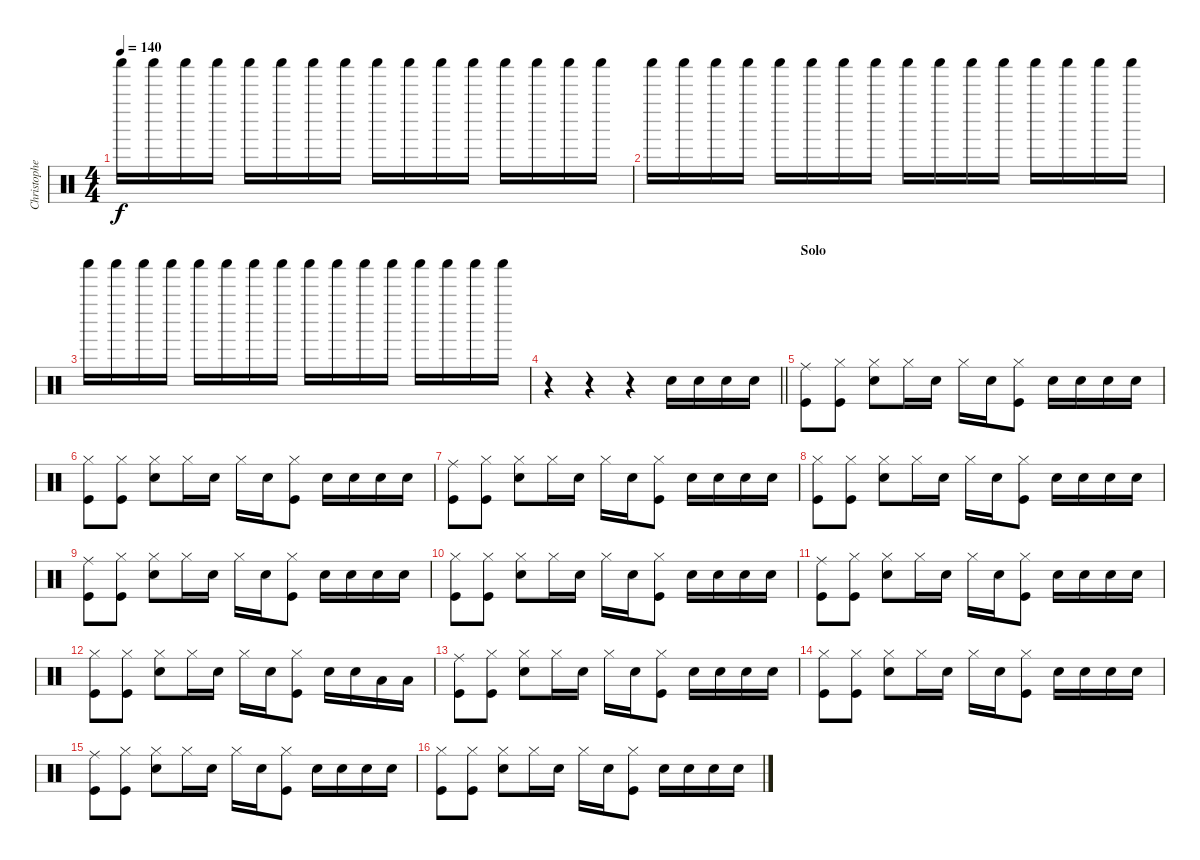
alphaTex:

\track ("Christopher - Drums" "Christophe") {instrument percussion}
\staff {score}
\articulation defaults
\ts (4 4)
\tempo 140
\clef neutral
\ks c "Shaker (hit)".16{dy f} "Shaker (hit)".16 "Shaker (hit)".16 "Shaker (hit)".16 "Shaker (hit)".16 "Shaker (hit)".16 "Shaker (hit)".16 "Shaker (hit)".16 "Shaker (hit)".16 "Shaker (hit)".16 "Shaker (hit)".16 "Shaker (hit)".16 "Shaker (hit)".16 "Shaker (hit)".16 "Shaker (hit)".16 "Shaker (hit)".16
|
"Shaker (hit)".16 "Shaker (hit)".16 "Shaker (hit)".16 "Shaker (hit)".16 "Shaker (hit)".16 "Shaker (hit)".16 "Shaker (hit)".16 "Shaker (hit)".16 "Shaker (hit)".16 "Shaker (hit)".16 "Shaker (hit)".16 "Shaker (hit)".16 "Shaker (hit)".16 "Shaker (hit)".16 "Shaker (hit)".16 "Shaker (hit)".16 |
"Shaker (hit)".16 "Shaker (hit)".16 "Shaker (hit)".16 "Shaker (hit)".16 "Shaker (hit)".16 "Shaker (hit)".16 "Shaker (hit)".16 "Shaker (hit)".16 "Shaker (hit)".16 "Shaker (hit)".16 "Shaker (hit)".16 "Shaker (hit)".16 "Shaker (hit)".16 "Shaker (hit)".16 "Shaker (hit)".16 "Shaker (hit)".16 |
\barLineRight lightlight
r.4 r.4 r.4 "Snare (hit) 2".16 "Snare (hit) 2".16 "Snare (hit) 2".16 "Snare (hit) 2".16 |
\section ("" "Solo")
("Ride (middle)" "Kick (hit)").8 ("Hi-Hat (closed)" "Kick (hit)").8 ("Hi-Hat (closed)" "Snare (hit) 2").8 "Hi-Hat (closed)".16 "Snare (hit) 2".16 "Hi-Hat (closed)".16 "Snare (hit) 2".16 ("Hi-Hat (closed)" "Kick (hit)").8 "Snare (hit) 2".16 "Snare (hit) 2".16 "Snare (hit) 2".16 "Snare (hit) 2".16 |
("Hi-Hat (closed)" "Kick (hit)").8 ("Hi-Hat (closed)" "Kick (hit)").8 ("Hi-Hat (closed)" "Snare (hit) 2").8 "Hi-Hat (closed)".16 "Snare (hit) 2".16 "Hi-Hat (closed)".16 "Snare (hit) 2".16 ("Hi-Hat (closed)" "Kick (hit)").8 "Snare (hit) 2".16 "Snare (hit) 2".16 "Snare (hit) 2".16 "Snare (hit) 2".16 |
("Ride (middle)" "Kick (hit)").8 ("Hi-Hat (closed)" "Kick (hit)").8 ("Hi-Hat (closed)" "Snare (hit) 2").8 "Hi-Hat (closed)".16 "Snare (hit) 2".16 "Hi-Hat (closed)".16 "Snare (hit) 2".16 ("Hi-Hat (closed)" "Kick (hit)").8 "Snare (hit) 2".16 "Snare (hit) 2".16 "Snare (hit) 2".16 "Snare (hit) 2".16 |
("Hi-Hat (closed)" "Kick (hit)").8 ("Hi-Hat (closed)" "Kick (hit)").8 ("Hi-Hat (closed)" "Snare (hit) 2").8 "Hi-Hat (closed)".16 "Snare (hit) 2".16 "Hi-Hat (closed)".16 "Snare (hit) 2".16 ("Hi-Hat (closed)" "Kick (hit)").8 "Snare (hit) 2".16 "Snare (hit) 2".16 "Snare (hit) 2".16 "Snare (hit) 2".16 |
("Ride (middle)" "Kick (hit)").8 ("Hi-Hat (closed)" "Kick (hit)").8 ("Hi-Hat (closed)" "Snare (hit) 2").8 "Hi-Hat (closed)".16 "Snare (hit) 2".16 "Hi-Hat (closed)".16 "Snare (hit) 2".16 ("Hi-Hat (closed)" "Kick (hit)").8 "Snare (hit) 2".16 "Snare (hit) 2".16 "Snare (hit) 2".16 "Snare (hit) 2".16 |
("Hi-Hat (closed)" "Kick (hit)").8 ("Hi-Hat (closed)" "Kick (hit)").8 ("Hi-Hat (closed)" "Snare (hit) 2").8 "Hi-Hat (closed)".16 "Snare (hit) 2".16 "Hi-Hat (closed)".16 "Snare (hit) 2".16 ("Hi-Hat (closed)" "Kick (hit)").8 "Snare (hit) 2".16 "Snare (hit) 2".16 "Snare (hit) 2".16 "Snare (hit) 2".16 |
("Ride (middle)" "Kick (hit)").8 ("Hi-Hat (closed)" "Kick (hit)").8 ("Hi-Hat (closed)" "Snare (hit) 2").8 "Hi-Hat (closed)".16 "Snare (hit) 2".16 "Hi-Hat (closed)".16 "Snare (hit) 2".16 ("Hi-Hat (closed)" "Kick (hit)").8 "Snare (hit) 2".16 "Snare (hit) 2".16 "Snare (hit) 2".16 "Snare (hit) 2".16 |
("Hi-Hat (closed)" "Kick (hit)").8 ("Hi-Hat (closed)" "Kick (hit)").8 ("Hi-Hat (closed)" "Snare (hit) 2").8 "Hi-Hat (closed)".16 "Snare (hit) 2".16 "Hi-Hat (closed)".16 "Snare (hit) 2".16 ("Hi-Hat (closed)" "Kick (hit)").8 "Snare (hit) 2".16 "Snare (hit) 2".16 "Low Tom (hit)".16 "Low Tom (hit)".16 |
("Ride (middle)" "Kick (hit)").8 ("Hi-Hat (closed)" "Kick (hit)").8 ("Hi-Hat (closed)" "Snare (hit) 2").8 "Hi-Hat (closed)".16 "Snare (hit) 2".16 "Hi-Hat (closed)".16 "Snare (hit) 2".16 ("Hi-Hat (closed)" "Kick (hit)").8 "Snare (hit) 2".16 "Snare (hit) 2".16 "Snare (hit) 2".16 "Snare (hit) 2".16 |
("Hi-Hat (closed)" "Kick (hit)").8 ("Hi-Hat (closed)" "Kick (hit)").8 ("Hi-Hat (closed)" "Snare (hit) 2").8 "Hi-Hat (closed)".16 "Snare (hit) 2".16 "Hi-Hat (closed)".16 "Snare (hit) 2".16 ("Hi-Hat (closed)" "Kick (hit)").8 "Snare (hit) 2".16 "Snare (hit) 2".16 "Snare (hit) 2".16 "Snare (hit) 2".16 |
("Ride (middle)" "Kick (hit)").8 ("Hi-Hat (closed)" "Kick (hit)").8 ("Hi-Hat (closed)" "Snare (hit) 2").8 "Hi-Hat (closed)".16 "Snare (hit) 2".16 "Hi-Hat (closed)".16 "Snare (hit) 2".16 ("Hi-Hat (closed)" "Kick (hit)").8 "Snare (hit) 2".16 "Snare (hit) 2".16 "Snare (hit) 2".16 "Snare (hit) 2".16 |
("Hi-Hat (closed)" "Kick (hit)").8 ("Hi-Hat (closed)" "Kick (hit)").8 ("Hi-Hat (closed)" "Snare (hit) 2").8 "Hi-Hat (closed)".16 "Snare (hit) 2".16 "Hi-Hat (closed)".16 "Snare (hit) 2".16 ("Hi-Hat (closed)" "Kick (hit)").8 "Snare (hit) 2".16 "Snare (hit) 2".16 "Snare (hit) 2".16 "Snare (hit) 2".16
